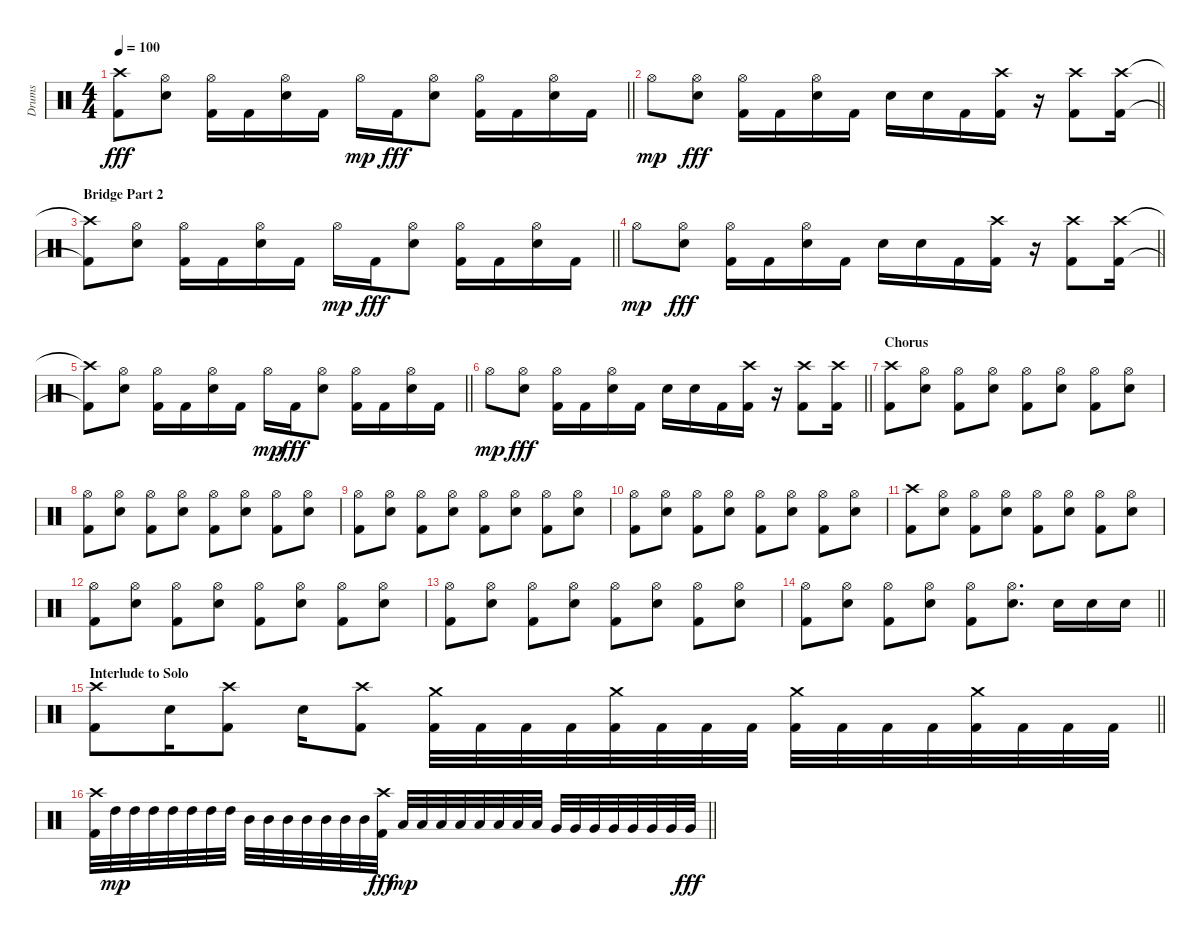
\track ("Drums" "Drums") {instrument percussion}
\staff {score}
\articulation defaults
\ts (4 4)
\tempo 100
\clef neutral
\barLineRight lightlight
\ks c
("Crash high (hit)"{t} "Kick (hit) 2"{t}).8{dy fff} ("Hi-Hat (open)" "Snare (hit) 2").8 ("Hi-Hat (open)" "Kick (hit) 2").16 "Kick (hit) 2".16 ("Hi-Hat (open)" "Snare (hit) 2").16 "Kick (hit) 2".16 "Hi-Hat (open)".16{dy mp} "Kick (hit) 2".16{dy fff} ("Hi-Hat (open)" "Snare (hit) 2").8 ("Hi-Hat (open)" "Kick (hit) 2").16 "Kick (hit) 2".16 ("Hi-Hat (open)" "Snare (hit) 2").16 "Kick (hit) 2".16 |
\barLineRight lightlight "Hi-Hat (open)".8{dy mp}
("Hi-Hat (open)" "Snare (hit) 2").8{dy fff} ("Hi-Hat (open)" "Kick (hit) 2").16 "Kick (hit) 2".16 ("Hi-Hat (open)" "Snare (hit) 2").16 "Kick (hit) 2".16 "Snare (hit) 2".16 "Snare (hit) 2".16 "Kick (hit) 2".16 ("Crash high (hit)" "Kick (hit) 2").16 r.16 ("Crash high (hit)" "Kick (hit) 2").8 ("Crash high (hit)" "Kick (hit) 2").16 |
\section ("" "Bridge Part 2")
\barLineRight lightlight
("Crash high (hit)"{t} "Kick (hit) 2"{t}).8 ("Hi-Hat (open)" "Snare (hit) 2").8 ("Hi-Hat (open)" "Kick (hit) 2").16 "Kick (hit) 2".16 ("Hi-Hat (open)" "Snare (hit) 2").16 "Kick (hit) 2".16 "Hi-Hat (open)".16{dy mp} "Kick (hit) 2".16{dy fff} ("Hi-Hat (open)" "Snare (hit) 2").8 ("Hi-Hat (open)" "Kick (hit) 2").16 "Kick (hit) 2".16 ("Hi-Hat (open)" "Snare (hit) 2").16 "Kick (hit) 2".16 |
\barLineRight lightlight "Hi-Hat (open)".8{dy mp}
("Hi-Hat (open)" "Snare (hit) 2").8{dy fff} ("Hi-Hat (open)" "Kick (hit) 2").16 "Kick (hit) 2".16 ("Hi-Hat (open)" "Snare (hit) 2").16 "Kick (hit) 2".16 "Snare (hit) 2".16 "Snare (hit) 2".16 "Kick (hit) 2".16 ("Crash high (hit)" "Kick (hit) 2").16 r.16 ("Crash high (hit)" "Kick (hit) 2").8 ("Crash high (hit)" "Kick (hit) 2").16 |
\barLineRight lightlight
("Crash high (hit)"{t} "Kick (hit) 2"{t}).8 ("Hi-Hat (open)" "Snare (hit) 2").8 ("Hi-Hat (open)" "Kick (hit) 2").16 "Kick (hit) 2".16 ("Hi-Hat (open)" "Snare (hit) 2").16 "Kick (hit) 2".16 "Hi-Hat (open)".16{dy mp} "Kick (hit) 2".16{dy fff} ("Hi-Hat (open)" "Snare (hit) 2").8 ("Hi-Hat (open)" "Kick (hit) 2").16 "Kick (hit) 2".16 ("Hi-Hat (open)" "Snare (hit) 2").16 "Kick (hit) 2".16 |
\barLineRight lightlight "Hi-Hat (open)".8{dy mp}
("Hi-Hat (open)" "Snare (hit) 2").8{dy fff} ("Hi-Hat (open)" "Kick (hit) 2").16 "Kick (hit) 2".16 ("Hi-Hat (open)" "Snare (hit) 2").16 "Kick (hit) 2".16 "Snare (hit) 2".16 "Snare (hit) 2".16 "Kick (hit) 2".16 ("Crash high (hit)" "Kick (hit) 2").16 r.16 ("Crash high (hit)" "Kick (hit) 2").8 ("Crash high (hit)" "Kick (hit) 2").16 |
\section ("" "Chorus")
("Crash high (hit)" "Kick (hit) 2").8 ("Hi-Hat (open)" "Snare (hit) 2").8 ("Hi-Hat (open)" "Kick (hit) 2").8 ("Hi-Hat (open)" "Snare (hit) 2").8 ("Hi-Hat (open)" "Kick (hit) 2").8 ("Hi-Hat (open)" "Snare (hit) 2").8 ("Hi-Hat (open)" "Kick (hit) 2").8 ("Hi-Hat (open)" "Snare (hit) 2").8 |
("Hi-Hat (open)" "Kick (hit) 2").8 ("Hi-Hat (open)" "Snare (hit) 2").8 ("Hi-Hat (open)" "Kick (hit) 2").8 ("Hi-Hat (open)" "Snare (hit) 2").8 ("Hi-Hat (open)" "Kick (hit) 2").8 ("Hi-Hat (open)" "Snare (hit) 2").8 ("Hi-Hat (open)" "Kick (hit) 2").8 ("Hi-Hat (open)" "Snare (hit) 2").8 |
("Hi-Hat (open)" "Kick (hit) 2").8 ("Hi-Hat (open)" "Snare (hit) 2").8 ("Hi-Hat (open)" "Kick (hit) 2").8 ("Hi-Hat (open)" "Snare (hit) 2").8 ("Hi-Hat (open)" "Kick (hit) 2").8 ("Hi-Hat (open)" "Snare (hit) 2").8 ("Hi-Hat (open)" "Kick (hit) 2").8 ("Hi-Hat (open)" "Snare (hit) 2").8 |
("Hi-Hat (open)" "Kick (hit) 2").8 ("Hi-Hat (open)" "Snare (hit) 2").8 ("Hi-Hat (open)" "Kick (hit) 2").8 ("Hi-Hat (open)" "Snare (hit) 2").8 ("Hi-Hat (open)" "Kick (hit) 2").8 ("Hi-Hat (open)" "Snare (hit) 2").8 ("Hi-Hat (open)" "Kick (hit) 2").8 ("Hi-Hat (open)" "Snare (hit) 2").8 |
("Crash high (hit)" "Kick (hit) 2").8 ("Hi-Hat (open)" "Snare (hit) 2").8 ("Hi-Hat (open)" "Kick (hit) 2").8 ("Hi-Hat (open)" "Snare (hit) 2").8 ("Hi-Hat (open)" "Kick (hit) 2").8 ("Hi-Hat (open)" "Snare (hit) 2").8 ("Hi-Hat (open)" "Kick (hit) 2").8 ("Hi-Hat (open)" "Snare (hit) 2").8 |
("Hi-Hat (open)" "Kick (hit) 2").8 ("Hi-Hat (open)" "Snare (hit) 2").8 ("Hi-Hat (open)" "Kick (hit) 2").8 ("Hi-Hat (open)" "Snare (hit) 2").8 ("Hi-Hat (open)" "Kick (hit) 2").8 ("Hi-Hat (open)" "Snare (hit) 2").8 ("Hi-Hat (open)" "Kick (hit) 2").8 ("Hi-Hat (open)" "Snare (hit) 2").8 |
("Hi-Hat (open)" "Kick (hit) 2").8 ("Hi-Hat (open)" "Snare (hit) 2").8 ("Hi-Hat (open)" "Kick (hit) 2").8 ("Hi-Hat (open)" "Snare (hit) 2").8 ("Hi-Hat (open)" "Kick (hit) 2").8 ("Hi-Hat (open)" "Snare (hit) 2").8 ("Hi-Hat (open)" "Kick (hit) 2").8 ("Hi-Hat (open)" "Snare (hit) 2").8 |
\barLineRight lightlight
("Hi-Hat (open)" "Kick (hit) 2").8 ("Hi-Hat (open)" "Snare (hit) 2").8 ("Hi-Hat (open)" "Kick (hit) 2").8 ("Hi-Hat (open)" "Snare (hit) 2").8 ("Hi-Hat (open)" "Kick (hit) 2").8 ("Hi-Hat (open)" "Snare (hit) 2").8{d} "Snare (hit) 2".16 "Snare (hit) 2".16 "Snare (hit) 2".16 |
\section ("" "Interlude to Solo")
\barLineRight lightlight
("Crash high (hit)" "Kick (hit) 2").8 "Snare (hit) 2".16 ("Crash high (hit)" "Kick (hit) 2").8 "Snare (hit) 2".16 ("Crash high (hit)" "Kick (hit) 2").8 ("Crash medium (hit)" "Kick (hit) 2").32 "Kick (hit) 2".32 "Kick (hit) 2".32 "Kick (hit) 2".32 ("Crash medium (hit)" "Kick (hit) 2").32 "Kick (hit) 2".32 "Kick (hit) 2".32 "Kick (hit) 2".32 ("Crash medium (hit)" "Kick (hit) 2").32 "Kick (hit) 2".32 "Kick (hit) 2".32 "Kick (hit) 2".32 ("Crash medium (hit)" "Kick (hit) 2").32 "Kick (hit) 2".32 "Kick (hit) 2".32 "Kick (hit) 2".32 |
\barLineRight lightlight
("Crash high (hit)" "Kick (hit) 2").32 "High Tom (hit)".32{dy mp} "High Tom (hit)".32 "High Tom (hit)".32 "High Tom (hit)".32 "High Tom (hit)".32 "High Tom (hit)".32 "High Tom (hit)".32 "Mid Tom (hit)".32 "Mid Tom (hit)".32 "Mid Tom (hit)".32 "Mid Tom (hit)".32 "Mid Tom (hit)".32 "Mid Tom (hit)".32 "Mid Tom (hit)".32 ("Crash high (hit)" "Kick (hit) 2").32{dy fff} "Low Tom (hit)".32{dy mp} "Low Tom (hit)".32 "Low Tom (hit)".32 "Low Tom (hit)".32 "Low Tom (hit)".32 "Low Tom (hit)".32 "Low Tom (hit)".32 "Low Tom (hit)".32 "Very Low Tom (hit)".32 "Very Low Tom (hit)".32 "Very Low Tom (hit)".32 "Very Low Tom (hit)".32 "Very Low Tom (hit)".32 "Very Low Tom (hit)".32 "Very Low Tom (hit)".32 "Very Low Tom (hit)".32{dy fff}
